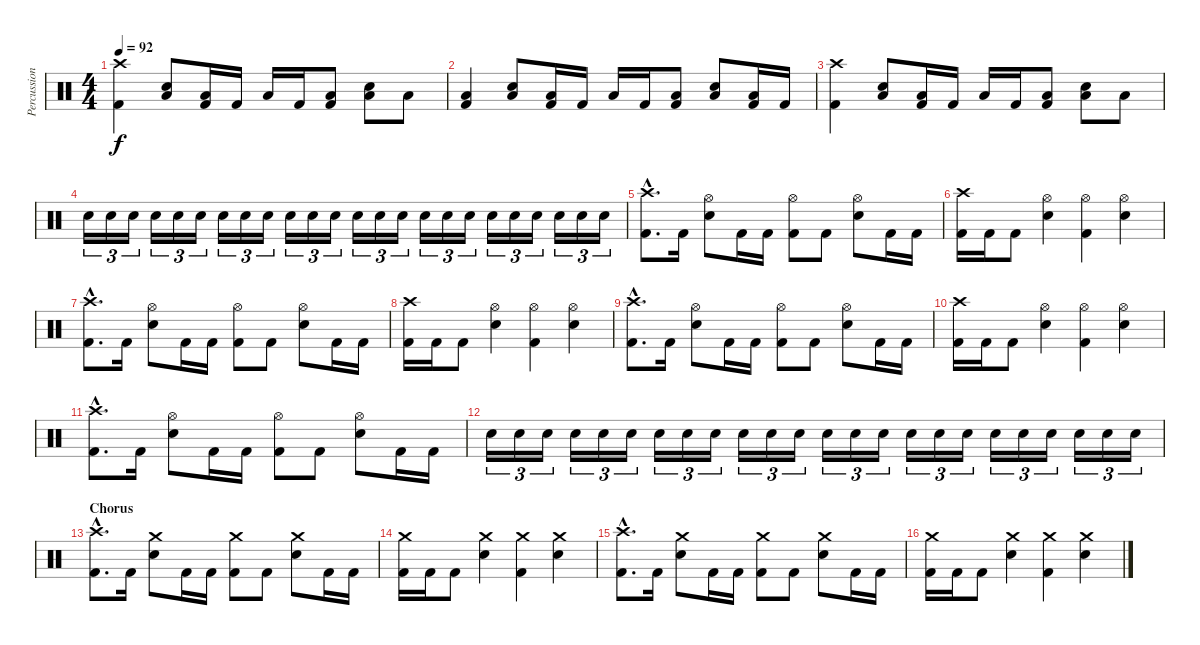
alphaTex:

\track ("Percussion" "Percussion") {instrument percussion}
\staff {score}
\articulation defaults
\ts (4 4)
\tempo 92
\clef neutral
\ks c
("Crash high (hit)" "Kick (hit) 2").4{dy f} ("Low Tom (hit)" "Electric Snare (hit)").8 ("Low Tom (hit)" "Kick (hit) 2").16 "Kick (hit) 2".16 "Low Tom (hit)".16 "Kick (hit) 2".16 ("Low Tom (hit)" "Kick (hit) 2").8 ("Low Tom (hit)" "Electric Snare (hit)").8 "Low Tom (hit)".8 |
("Low Tom (hit)" "Kick (hit) 2").4 ("Low Tom (hit)" "Electric Snare (hit)").8 ("Low Tom (hit)" "Kick (hit) 2").16 "Kick (hit) 2".16 "Low Tom (hit)".16 "Kick (hit) 2".16 ("Low Tom (hit)" "Kick (hit) 2").8 ("Low Tom (hit)" "Electric Snare (hit)").8 ("Low Tom (hit)" "Kick (hit) 2").16 "Kick (hit) 2".16 |
("Crash high (hit)" "Kick (hit) 2").4 ("Low Tom (hit)" "Electric Snare (hit)").8 ("Low Tom (hit)" "Kick (hit) 2").16 "Kick (hit) 2".16 "Low Tom (hit)".16 "Kick (hit) 2".16 ("Low Tom (hit)" "Kick (hit) 2").8 ("Low Tom (hit)" "Electric Snare (hit)").8 "Low Tom (hit)".8 |
"Electric Snare (hit)".16{tu (3 2)} "Electric Snare (hit)".16{tu (3 2)} "Electric Snare (hit)".16{tu (3 2)} "Electric Snare (hit)".16{tu (3 2)} "Electric Snare (hit)".16{tu (3 2)} "Electric Snare (hit)".16{tu (3 2)} "Electric Snare (hit)".16{tu (3 2)} "Electric Snare (hit)".16{tu (3 2)} "Electric Snare (hit)".16{tu (3 2)} "Electric Snare (hit)".16{tu (3 2)} "Electric Snare (hit)".16{tu (3 2)} "Electric Snare (hit)".16{tu (3 2)} "Electric Snare (hit)".16{tu (3 2)} "Electric Snare (hit)".16{tu (3 2)} "Electric Snare (hit)".16{tu (3 2)} "Electric Snare (hit)".16{tu (3 2)} "Electric Snare (hit)".16{tu (3 2)} "Electric Snare (hit)".16{tu (3 2)} "Electric Snare (hit)".16{tu (3 2)} "Electric Snare (hit)".16{tu (3 2)} "Electric Snare (hit)".16{tu (3 2)} "Electric Snare (hit)".16{tu (3 2)} "Electric Snare (hit)".16{tu (3 2)} "Electric Snare (hit)".16{tu (3 2)} |
("Crash high (hit)"{hac} "Kick (hit) 2"{hac}).8{d} "Kick (hit) 2".16 ("Hi-Hat (open)" "Electric Snare (hit)").8 "Kick (hit) 2".16 "Kick (hit) 2".16 ("Hi-Hat (open)" "Kick (hit) 2").8 "Kick (hit) 2".8 ("Hi-Hat (open)" "Electric Snare (hit)").8 "Kick (hit) 2".16 "Kick (hit) 2".16 |
("Crash high (hit)" "Kick (hit) 2").16 "Kick (hit) 2".16 "Kick (hit) 2".8 ("Hi-Hat (open)" "Electric Snare (hit)").4 ("Hi-Hat (open)" "Kick (hit) 2").4 ("Hi-Hat (open)" "Electric Snare (hit)").4 |
("Crash high (hit)"{hac} "Kick (hit) 2"{hac}).8{d} "Kick (hit) 2".16 ("Hi-Hat (open)" "Electric Snare (hit)").8 "Kick (hit) 2".16 "Kick (hit) 2".16 ("Hi-Hat (open)" "Kick (hit) 2").8 "Kick (hit) 2".8 ("Hi-Hat (open)" "Electric Snare (hit)").8 "Kick (hit) 2".16 "Kick (hit) 2".16 |
("Crash high (hit)" "Kick (hit) 2").16 "Kick (hit) 2".16 "Kick (hit) 2".8 ("Hi-Hat (open)" "Electric Snare (hit)").4 ("Hi-Hat (open)" "Kick (hit) 2").4 ("Hi-Hat (open)" "Electric Snare (hit)").4 |
("Crash high (hit)"{hac} "Kick (hit) 2"{hac}).8{d} "Kick (hit) 2".16 ("Hi-Hat (open)" "Electric Snare (hit)").8 "Kick (hit) 2".16 "Kick (hit) 2".16 ("Hi-Hat (open)" "Kick (hit) 2").8 "Kick (hit) 2".8 ("Hi-Hat (open)" "Electric Snare (hit)").8 "Kick (hit) 2".16 "Kick (hit) 2".16 |
("Crash high (hit)" "Kick (hit) 2").16 "Kick (hit) 2".16 "Kick (hit) 2".8 ("Hi-Hat (open)" "Electric Snare (hit)").4 ("Hi-Hat (open)" "Kick (hit) 2").4 ("Hi-Hat (open)" "Electric Snare (hit)").4 |
("Crash high (hit)"{hac} "Kick (hit) 2"{hac}).8{d} "Kick (hit) 2".16 ("Hi-Hat (open)" "Electric Snare (hit)").8 "Kick (hit) 2".16 "Kick (hit) 2".16 ("Hi-Hat (open)" "Kick (hit) 2").8 "Kick (hit) 2".8 ("Hi-Hat (open)" "Electric Snare (hit)").8 "Kick (hit) 2".16 "Kick (hit) 2".16 |
"Electric Snare (hit)".16{tu (3 2)} "Electric Snare (hit)".16{tu (3 2)} "Electric Snare (hit)".16{tu (3 2)} "Electric Snare (hit)".16{tu (3 2)} "Electric Snare (hit)".16{tu (3 2)} "Electric Snare (hit)".16{tu (3 2)} "Electric Snare (hit)".16{tu (3 2)} "Electric Snare (hit)".16{tu (3 2)} "Electric Snare (hit)".16{tu (3 2)} "Electric Snare (hit)".16{tu (3 2)} "Electric Snare (hit)".16{tu (3 2)} "Electric Snare (hit)".16{tu (3 2)} "Electric Snare (hit)".16{tu (3 2)} "Electric Snare (hit)".16{tu (3 2)} "Electric Snare (hit)".16{tu (3 2)} "Electric Snare (hit)".16{tu (3 2)} "Electric Snare (hit)".16{tu (3 2)} "Electric Snare (hit)".16{tu (3 2)} "Electric Snare (hit)".16{tu (3 2)} "Electric Snare (hit)".16{tu (3 2)} "Electric Snare (hit)".16{tu (3 2)} "Electric Snare (hit)".16{tu (3 2)} "Electric Snare (hit)".16{tu (3 2)} "Electric Snare (hit)".16{tu (3 2)} |
\section ("" "Chorus")
("Crash high (hit)"{hac} "Kick (hit) 2"{hac}).8{d} "Kick (hit) 2".16 ("Crash medium (hit)" "Electric Snare (hit)").8 "Kick (hit) 2".16 "Kick (hit) 2".16 ("Crash medium (hit)" "Kick (hit) 2").8 "Kick (hit) 2".8 ("Crash medium (hit)" "Electric Snare (hit)").8 "Kick (hit) 2".16 "Kick (hit) 2".16 |
("Crash medium (hit)" "Kick (hit) 2").16 "Kick (hit) 2".16 "Kick (hit) 2".8 ("Crash medium (hit)" "Electric Snare (hit)").4 ("Crash medium (hit)" "Kick (hit) 2").4 ("Crash medium (hit)" "Electric Snare (hit)").4 |
("Crash high (hit)"{hac} "Kick (hit) 2"{hac}).8{d} "Kick (hit) 2".16 ("Crash medium (hit)" "Electric Snare (hit)").8 "Kick (hit) 2".16 "Kick (hit) 2".16 ("Crash medium (hit)" "Kick (hit) 2").8 "Kick (hit) 2".8 ("Crash medium (hit)" "Electric Snare (hit)").8 "Kick (hit) 2".16 "Kick (hit) 2".16 |
("Crash medium (hit)" "Kick (hit) 2").16 "Kick (hit) 2".16 "Kick (hit) 2".8 ("Crash medium (hit)" "Electric Snare (hit)").4 ("Crash medium (hit)" "Kick (hit) 2").4 ("Crash medium (hit)" "Electric Snare (hit)").4
